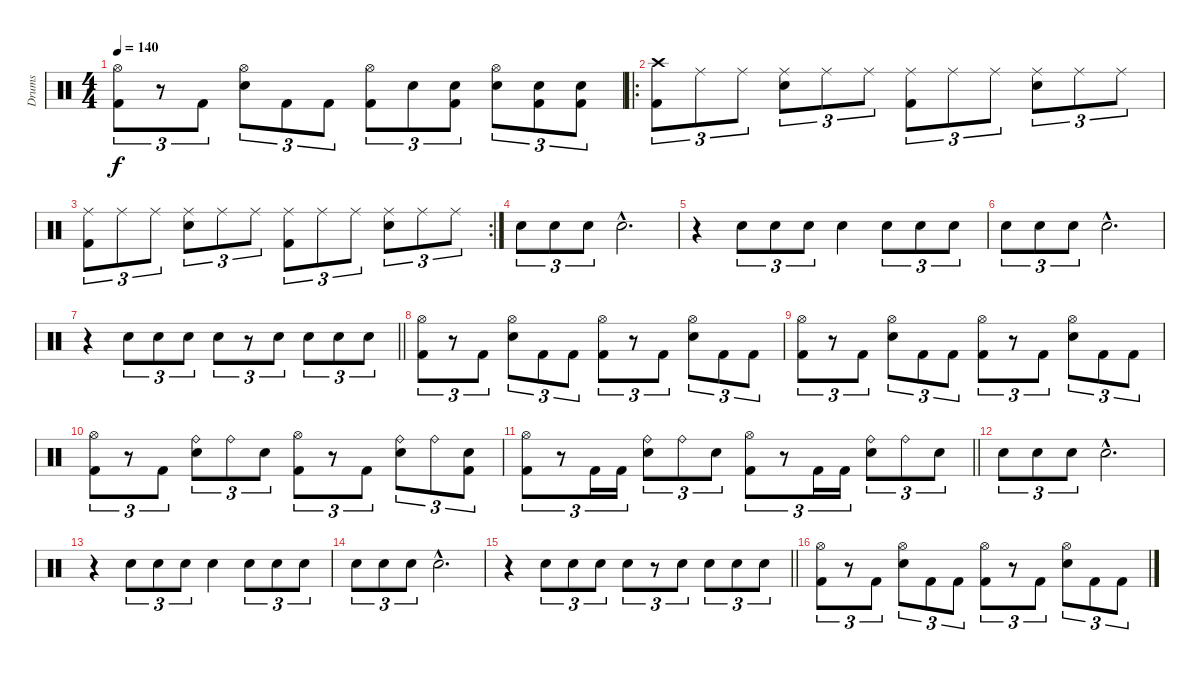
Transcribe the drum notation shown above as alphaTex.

\track ("Drums" "Drums") {instrument percussion}
\staff {score}
\articulation defaults
\ts (4 4)
\tempo 140
\clef neutral
\ks c
("Hi-Hat (open)" "Kick (hit) 2").8{tu (3 2) dy f} r.8{tu (3 2)} "Kick (hit) 2".8{tu (3 2)} ("Hi-Hat (open)" "Snare (hit) 2").8{tu (3 2)} "Kick (hit) 2".8{tu (3 2)} "Kick (hit) 2".8{tu (3 2)} ("Hi-Hat (open)" "Kick (hit) 2").8{tu (3 2)} "Snare (hit) 2".8{tu (3 2)} ("Snare (hit) 2" "Kick (hit) 2").8{tu (3 2)} ("Hi-Hat (open)" "Snare (hit) 2").8{tu (3 2)} ("Snare (hit) 2" "Kick (hit) 2").8{tu (3 2)} ("Snare (hit) 2" "Kick (hit) 2").8{tu (3 2)} |
\ro
("Crash high (hit)" "Kick (hit) 2").8{tu (3 2)} "Ride (middle)".8{tu (3 2)} "Ride (middle)".8{tu (3 2)} ("Ride (middle)" "Snare (hit) 2").8{tu (3 2)} "Ride (middle)".8{tu (3 2)} "Ride (middle)".8{tu (3 2)} ("Ride (middle)" "Kick (hit) 2").8{tu (3 2)} "Ride (middle)".8{tu (3 2)} "Ride (middle)".8{tu (3 2)} ("Ride (middle)" "Snare (hit) 2").8{tu (3 2)} "Ride (middle)".8{tu (3 2)} "Ride (middle)".8{tu (3 2)} |
\rc 2
("Ride (middle)" "Kick (hit) 2").8{tu (3 2)} "Ride (middle)".8{tu (3 2)} "Ride (middle)".8{tu (3 2)} ("Ride (middle)" "Snare (hit) 2").8{tu (3 2)} "Ride (middle)".8{tu (3 2)} "Ride (middle)".8{tu (3 2)} ("Ride (middle)" "Kick (hit) 2").8{tu (3 2)} "Ride (middle)".8{tu (3 2)} "Ride (middle)".8{tu (3 2)} ("Ride (middle)" "Snare (hit) 2").8{tu (3 2)} "Ride (middle)".8{tu (3 2)} "Ride (middle)".8{tu (3 2)} |
"Snare (hit) 2".8{tu (3 2)} "Snare (hit) 2".8{tu (3 2)} "Snare (hit) 2".8{tu (3 2)} "Snare (hit) 2"{hac}.2{d} |
r.4 "Snare (hit) 2".8{tu (3 2)} "Snare (hit) 2".8{tu (3 2)} "Snare (hit) 2".8{tu (3 2)} "Snare (hit) 2".4 "Snare (hit) 2".8{tu (3 2)} "Snare (hit) 2".8{tu (3 2)} "Snare (hit) 2".8{tu (3 2)} |
"Snare (hit) 2".8{tu (3 2)} "Snare (hit) 2".8{tu (3 2)} "Snare (hit) 2".8{tu (3 2)} "Snare (hit) 2"{hac}.2{d} |
\barLineRight lightlight
r.4 "Snare (hit) 2".8{tu (3 2)} "Snare (hit) 2".8{tu (3 2)} "Snare (hit) 2".8{tu (3 2)} "Snare (hit) 2".8{tu (3 2)} r.8{tu (3 2)} "Snare (hit) 2".8{tu (3 2)} "Snare (hit) 2".8{tu (3 2)} "Snare (hit) 2".8{tu (3 2)} "Snare (hit) 2".8{tu (3 2)} |
("Hi-Hat (open)" "Kick (hit) 2").8{tu (3 2)} r.8{tu (3 2)} "Kick (hit) 2".8{tu (3 2)} ("Hi-Hat (open)" "Snare (hit) 2").8{tu (3 2)} "Kick (hit) 2".8{tu (3 2)} "Kick (hit) 2".8{tu (3 2)} ("Hi-Hat (open)" "Kick (hit) 2").8{tu (3 2)} r.8{tu (3 2)} "Kick (hit) 2".8{tu (3 2)} ("Hi-Hat (open)" "Snare (hit) 2").8{tu (3 2)} "Kick (hit) 2".8{tu (3 2)} "Kick (hit) 2".8{tu (3 2)} |
("Hi-Hat (open)" "Kick (hit) 2").8{tu (3 2)} r.8{tu (3 2)} "Kick (hit) 2".8{tu (3 2)} ("Hi-Hat (open)" "Snare (hit) 2").8{tu (3 2)} "Kick (hit) 2".8{tu (3 2)} "Kick (hit) 2".8{tu (3 2)} ("Hi-Hat (open)" "Kick (hit) 2").8{tu (3 2)} r.8{tu (3 2)} "Kick (hit) 2".8{tu (3 2)} ("Hi-Hat (open)" "Snare (hit) 2").8{tu (3 2)} "Kick (hit) 2".8{tu (3 2)} "Kick (hit) 2".8{tu (3 2)} |
("Hi-Hat (open)" "Kick (hit) 2").8{tu (3 2)} r.8{tu (3 2)} "Kick (hit) 2".8{tu (3 2)} ("Ride (bell)" "Snare (hit) 2").8{tu (3 2)} "Ride (bell)".8{tu (3 2)} "Snare (hit) 2".8{tu (3 2)} ("Hi-Hat (open)" "Kick (hit) 2").8{tu (3 2)} r.8{tu (3 2)} "Kick (hit) 2".8{tu (3 2)} ("Ride (bell)" "Snare (hit) 2").8{tu (3 2)} "Ride (bell)".8{tu (3 2)} ("Snare (hit) 2" "Kick (hit) 2").8{tu (3 2)} |
\barLineRight lightlight
("Hi-Hat (open)" "Kick (hit) 2").8{tu (3 2)} r.8{tu (3 2)} "Kick (hit) 2".16{tu (3 2)} "Kick (hit) 2".16{tu (3 2)} ("Ride (bell)" "Snare (hit) 2").8{tu (3 2)} "Ride (bell)".8{tu (3 2)} "Snare (hit) 2".8{tu (3 2)} ("Hi-Hat (open)" "Kick (hit) 2").8{tu (3 2)} r.8{tu (3 2)} "Kick (hit) 2".16{tu (3 2)} "Kick (hit) 2".16{tu (3 2)} ("Ride (bell)" "Snare (hit) 2").8{tu (3 2)} "Ride (bell)".8{tu (3 2)} "Snare (hit) 2".8{tu (3 2)} |
"Snare (hit) 2".8{tu (3 2)} "Snare (hit) 2".8{tu (3 2)} "Snare (hit) 2".8{tu (3 2)} "Snare (hit) 2"{hac}.2{d} |
r.4 "Snare (hit) 2".8{tu (3 2)} "Snare (hit) 2".8{tu (3 2)} "Snare (hit) 2".8{tu (3 2)} "Snare (hit) 2".4 "Snare (hit) 2".8{tu (3 2)} "Snare (hit) 2".8{tu (3 2)} "Snare (hit) 2".8{tu (3 2)} |
"Snare (hit) 2".8{tu (3 2)} "Snare (hit) 2".8{tu (3 2)} "Snare (hit) 2".8{tu (3 2)} "Snare (hit) 2"{hac}.2{d} |
\barLineRight lightlight
r.4 "Snare (hit) 2".8{tu (3 2)} "Snare (hit) 2".8{tu (3 2)} "Snare (hit) 2".8{tu (3 2)} "Snare (hit) 2".8{tu (3 2)} r.8{tu (3 2)} "Snare (hit) 2".8{tu (3 2)} "Snare (hit) 2".8{tu (3 2)} "Snare (hit) 2".8{tu (3 2)} "Snare (hit) 2".8{tu (3 2)} |
("Hi-Hat (open)" "Kick (hit) 2").8{tu (3 2)} r.8{tu (3 2)} "Kick (hit) 2".8{tu (3 2)} ("Hi-Hat (open)" "Snare (hit) 2").8{tu (3 2)} "Kick (hit) 2".8{tu (3 2)} "Kick (hit) 2".8{tu (3 2)} ("Hi-Hat (open)" "Kick (hit) 2").8{tu (3 2)} r.8{tu (3 2)} "Kick (hit) 2".8{tu (3 2)} ("Hi-Hat (open)" "Snare (hit) 2").8{tu (3 2)} "Kick (hit) 2".8{tu (3 2)} "Kick (hit) 2".8{tu (3 2)}
